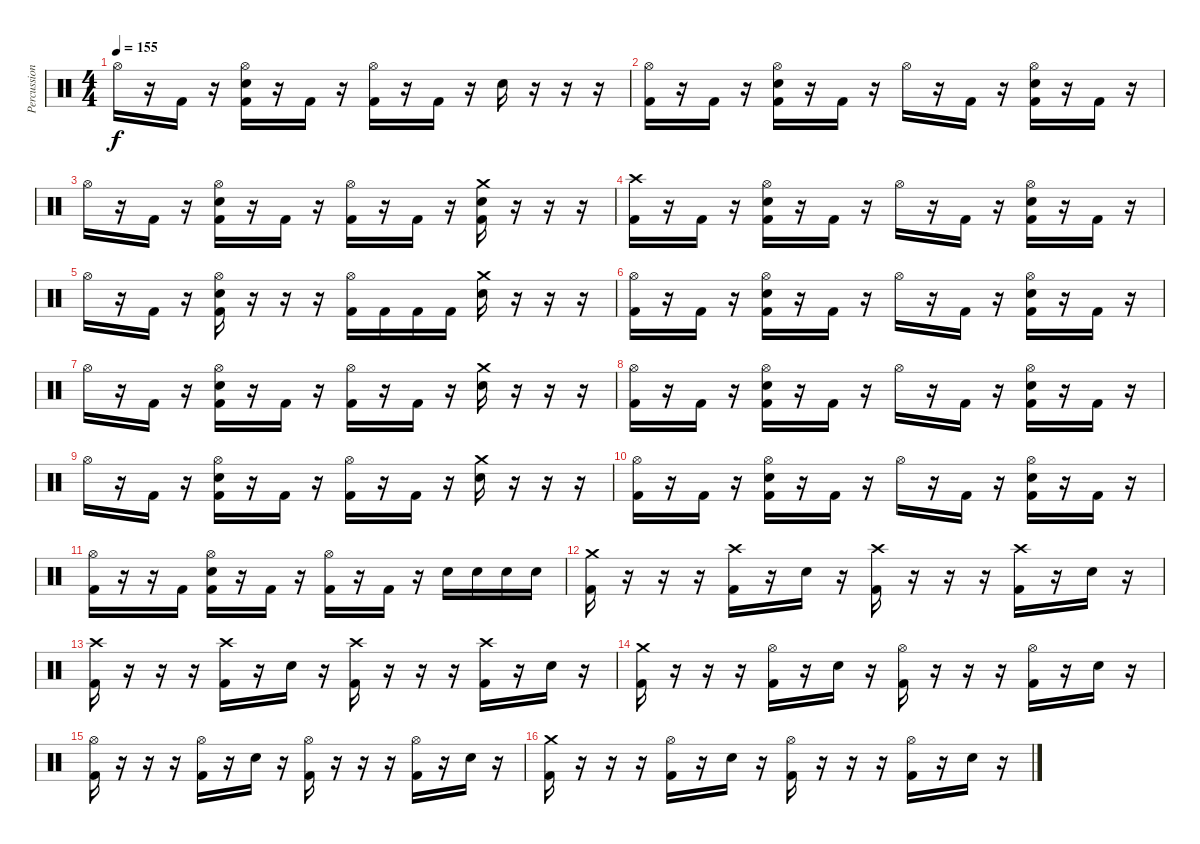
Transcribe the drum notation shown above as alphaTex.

\track ("Percussion" "Percussion") {instrument percussion}
\staff {score}
\articulation defaults
\ts (4 4)
\tempo 155
\clef neutral
\ks c "Hi-Hat (open)".16{dy f}
r.16 "Kick (hit) 2".16 r.16 ("Hi-Hat (open)" "Snare (hit) 2" "Kick (hit) 2").16 r.16 "Kick (hit) 2".16 r.16 ("Hi-Hat (open)" "Kick (hit) 2").16 r.16 "Kick (hit) 2".16 r.16 "Snare (hit) 2".16 r.16 r.16 r.16 |
("Hi-Hat (open)" "Kick (hit) 2").16 r.16 "Kick (hit) 2".16 r.16 ("Hi-Hat (open)" "Snare (hit) 2" "Kick (hit) 2").16 r.16 "Kick (hit) 2".16 r.16 "Hi-Hat (open)".16 r.16 "Kick (hit) 2".16 r.16 ("Hi-Hat (open)" "Snare (hit) 2" "Kick (hit) 2").16 r.16 "Kick (hit) 2".16 r.16 |
"Hi-Hat (open)".16 r.16 "Kick (hit) 2".16 r.16 ("Hi-Hat (open)" "Snare (hit) 2" "Kick (hit) 2").16 r.16 "Kick (hit) 2".16 r.16 ("Hi-Hat (open)" "Kick (hit) 2").16 r.16 "Kick (hit) 2".16 r.16 ("Crash medium (hit)" "Snare (hit) 2" "Kick (hit) 2").16 r.16 r.16 r.16 |
("Crash high (hit)" "Kick (hit) 2").16 r.16 "Kick (hit) 2".16 r.16 ("Hi-Hat (open)" "Snare (hit) 2" "Kick (hit) 2").16 r.16 "Kick (hit) 2".16 r.16 "Hi-Hat (open)".16 r.16 "Kick (hit) 2".16 r.16 ("Hi-Hat (open)" "Snare (hit) 2" "Kick (hit) 2").16 r.16 "Kick (hit) 2".16 r.16 |
"Hi-Hat (open)".16 r.16 "Kick (hit) 2".16 r.16 ("Hi-Hat (open)" "Snare (hit) 2" "Kick (hit) 2").16 r.16 r.16 r.16 ("Hi-Hat (open)" "Kick (hit) 2").16 "Kick (hit) 2".16 "Kick (hit) 2".16 "Kick (hit) 2".16 ("Crash medium (hit)" "Snare (hit) 2").16 r.16 r.16 r.16 |
("Hi-Hat (open)" "Kick (hit) 2").16 r.16 "Kick (hit) 2".16 r.16 ("Hi-Hat (open)" "Snare (hit) 2" "Kick (hit) 2").16 r.16 "Kick (hit) 2".16 r.16 "Hi-Hat (open)".16 r.16 "Kick (hit) 2".16 r.16 ("Hi-Hat (open)" "Snare (hit) 2" "Kick (hit) 2").16 r.16 "Kick (hit) 2".16 r.16 |
"Hi-Hat (open)".16 r.16 "Kick (hit) 2".16 r.16 ("Hi-Hat (open)" "Snare (hit) 2" "Kick (hit) 2").16 r.16 "Kick (hit) 2".16 r.16 ("Hi-Hat (open)" "Kick (hit) 2").16 r.16 "Kick (hit) 2".16 r.16 ("Crash medium (hit)" "Snare (hit) 2").16 r.16 r.16 r.16 |
("Hi-Hat (open)" "Kick (hit) 2").16 r.16 "Kick (hit) 2".16 r.16 ("Hi-Hat (open)" "Snare (hit) 2" "Kick (hit) 2").16 r.16 "Kick (hit) 2".16 r.16 "Hi-Hat (open)".16 r.16 "Kick (hit) 2".16 r.16 ("Hi-Hat (open)" "Snare (hit) 2" "Kick (hit) 2").16 r.16 "Kick (hit) 2".16 r.16 |
"Hi-Hat (open)".16 r.16 "Kick (hit) 2".16 r.16 ("Hi-Hat (open)" "Snare (hit) 2" "Kick (hit) 2").16 r.16 "Kick (hit) 2".16 r.16 ("Hi-Hat (open)" "Kick (hit) 2").16 r.16 "Kick (hit) 2".16 r.16 ("Crash medium (hit)" "Snare (hit) 2").16 r.16 r.16 r.16 |
("Hi-Hat (open)" "Kick (hit) 2").16 r.16 "Kick (hit) 2".16 r.16 ("Hi-Hat (open)" "Snare (hit) 2" "Kick (hit) 2").16 r.16 "Kick (hit) 2".16 r.16 "Hi-Hat (open)".16 r.16 "Kick (hit) 2".16 r.16 ("Hi-Hat (open)" "Snare (hit) 2" "Kick (hit) 2").16 r.16 "Kick (hit) 2".16 r.16 |
("Hi-Hat (open)" "Kick (hit) 2").16 r.16 r.16 "Kick (hit) 2".16 ("Hi-Hat (open)" "Snare (hit) 2" "Kick (hit) 2").16 r.16 "Kick (hit) 2".16 r.16 ("Hi-Hat (open)" "Kick (hit) 2").16 r.16 "Kick (hit) 2".16 r.16 "Snare (hit) 2".16 "Snare (hit) 2".16 "Snare (hit) 2".16 "Snare (hit) 2".16 |
("Crash medium (hit)" "Kick (hit) 2").16 r.16 r.16 r.16 ("Crash high (hit)" "Kick (hit) 2").16 r.16 "Snare (hit) 2".16 r.16 ("Crash high (hit)" "Kick (hit) 2").16 r.16 r.16 r.16 ("Crash high (hit)" "Kick (hit) 2").16 r.16 "Snare (hit) 2".16 r.16 |
("Crash high (hit)" "Kick (hit) 2").16 r.16 r.16 r.16 ("Crash high (hit)" "Kick (hit) 2").16 r.16 "Snare (hit) 2".16 r.16 ("Crash high (hit)" "Kick (hit) 2").16 r.16 r.16 r.16 ("Crash high (hit)" "Kick (hit) 2").16 r.16 "Snare (hit) 2".16 r.16 |
("Crash medium (hit)" "Kick (hit) 2").16 r.16 r.16 r.16 ("Hi-Hat (open)" "Kick (hit) 2").16 r.16 "Snare (hit) 2".16 r.16 ("Hi-Hat (open)" "Kick (hit) 2").16 r.16 r.16 r.16 ("Hi-Hat (open)" "Kick (hit) 2").16 r.16 "Snare (hit) 2".16 r.16 |
("Hi-Hat (open)" "Kick (hit) 2").16 r.16 r.16 r.16 ("Hi-Hat (open)" "Kick (hit) 2").16 r.16 "Snare (hit) 2".16 r.16 ("Hi-Hat (open)" "Kick (hit) 2").16 r.16 r.16 r.16 ("Hi-Hat (open)" "Kick (hit) 2").16 r.16 "Snare (hit) 2".16 r.16 |
("Crash medium (hit)" "Kick (hit) 2").16 r.16 r.16 r.16 ("Hi-Hat (open)" "Kick (hit) 2").16 r.16 "Snare (hit) 2".16 r.16 ("Hi-Hat (open)" "Kick (hit) 2").16 r.16 r.16 r.16 ("Hi-Hat (open)" "Kick (hit) 2").16 r.16 "Snare (hit) 2".16 r.16
